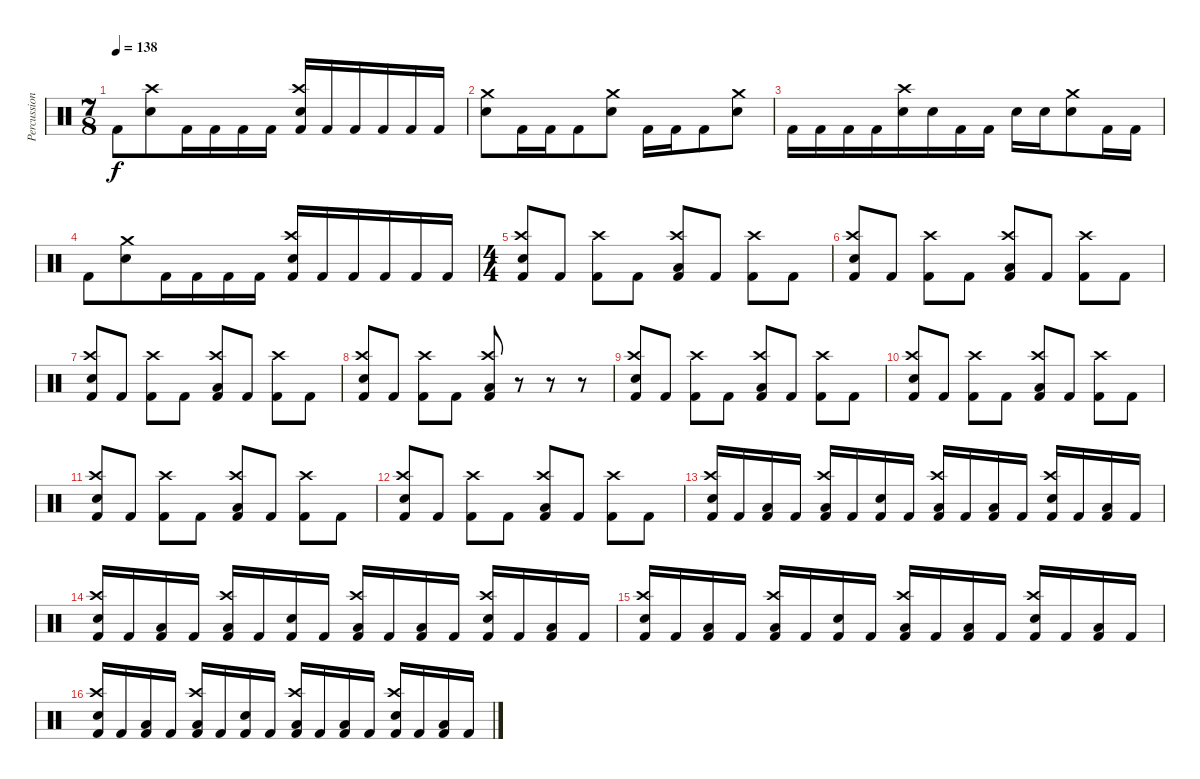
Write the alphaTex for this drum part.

\track ("Percussion" "Percussion") {instrument percussion}
\staff {score}
\articulation defaults
\ts (7 8)
\tempo 138
\clef neutral
\ks c "Kick (hit) 2".8{dy f}
("Crash high (hit)" "Electric Snare (hit)").8 "Kick (hit) 2".16 "Kick (hit) 2".16 "Kick (hit) 2".16 "Kick (hit) 2".16 ("Crash high (hit)" "Electric Snare (hit)" "Kick (hit) 2").16 "Kick (hit) 2".16 "Kick (hit) 2".16 "Kick (hit) 2".16 "Kick (hit) 2".16 "Kick (hit) 2".16 |
("Crash medium (hit)" "Electric Snare (hit)").8 "Kick (hit) 2".16 "Kick (hit) 2".16 "Kick (hit) 2".8 ("Crash medium (hit)" "Electric Snare (hit)").8 "Kick (hit) 2".16 "Kick (hit) 2".16 "Kick (hit) 2".8 ("Crash medium (hit)" "Electric Snare (hit)").8 |
"Kick (hit) 2".16 "Kick (hit) 2".16 "Kick (hit) 2".16 "Kick (hit) 2".16 ("Crash high (hit)" "Electric Snare (hit)").16 "Electric Snare (hit)".16 "Kick (hit) 2".16 "Kick (hit) 2".16 "Electric Snare (hit)".16 "Electric Snare (hit)".16 ("Crash medium (hit)" "Electric Snare (hit)").8 "Kick (hit) 2".16 "Kick (hit) 2".16 |
"Kick (hit) 2".8 ("Crash medium (hit)" "Electric Snare (hit)").8 "Kick (hit) 2".16 "Kick (hit) 2".16 "Kick (hit) 2".16 "Kick (hit) 2".16 ("Crash high (hit)" "Electric Snare (hit)" "Kick (hit) 2").16 "Kick (hit) 2".16 "Kick (hit) 2".16 "Kick (hit) 2".16 "Kick (hit) 2".16 "Kick (hit) 2".16 |
\ts (4 4)
("Crash high (hit)" "Electric Snare (hit)" "Kick (hit) 2").8 "Kick (hit) 2".8 ("Crash high (hit)" "Kick (hit) 2").8 "Kick (hit) 2".8 ("Crash high (hit)" "Low Tom (hit)" "Kick (hit) 2").8 "Kick (hit) 2".8 ("Crash high (hit)" "Kick (hit) 2").8 "Kick (hit) 2".8 |
("Crash high (hit)" "Electric Snare (hit)" "Kick (hit) 2").8 "Kick (hit) 2".8 ("Crash high (hit)" "Kick (hit) 2").8 "Kick (hit) 2".8 ("Crash high (hit)" "Low Tom (hit)" "Kick (hit) 2").8 "Kick (hit) 2".8 ("Crash high (hit)" "Kick (hit) 2").8 "Kick (hit) 2".8 |
("Crash high (hit)" "Electric Snare (hit)" "Kick (hit) 2").8 "Kick (hit) 2".8 ("Crash high (hit)" "Kick (hit) 2").8 "Kick (hit) 2".8 ("Crash high (hit)" "Low Tom (hit)" "Kick (hit) 2").8 "Kick (hit) 2".8 ("Crash high (hit)" "Kick (hit) 2").8 "Kick (hit) 2".8 |
("Crash high (hit)" "Electric Snare (hit)" "Kick (hit) 2").8 "Kick (hit) 2".8 ("Crash high (hit)" "Kick (hit) 2").8 "Kick (hit) 2".8 ("Crash high (hit)" "Low Tom (hit)" "Kick (hit) 2").8 r.8 r.8 r.8 |
("Crash high (hit)" "Electric Snare (hit)" "Kick (hit) 2").8 "Kick (hit) 2".8 ("Crash high (hit)" "Kick (hit) 2").8 "Kick (hit) 2".8 ("Crash high (hit)" "Low Tom (hit)" "Kick (hit) 2").8 "Kick (hit) 2".8 ("Crash high (hit)" "Kick (hit) 2").8 "Kick (hit) 2".8 |
("Crash high (hit)" "Electric Snare (hit)" "Kick (hit) 2").8 "Kick (hit) 2".8 ("Crash high (hit)" "Kick (hit) 2").8 "Kick (hit) 2".8 ("Crash high (hit)" "Low Tom (hit)" "Kick (hit) 2").8 "Kick (hit) 2".8 ("Crash high (hit)" "Kick (hit) 2").8 "Kick (hit) 2".8 |
("Crash high (hit)" "Electric Snare (hit)" "Kick (hit) 2").8 "Kick (hit) 2".8 ("Crash high (hit)" "Kick (hit) 2").8 "Kick (hit) 2".8 ("Crash high (hit)" "Low Tom (hit)" "Kick (hit) 2").8 "Kick (hit) 2".8 ("Crash high (hit)" "Kick (hit) 2").8 "Kick (hit) 2".8 |
("Crash high (hit)" "Electric Snare (hit)" "Kick (hit) 2").8 "Kick (hit) 2".8 ("Crash high (hit)" "Kick (hit) 2").8 "Kick (hit) 2".8 ("Crash high (hit)" "Low Tom (hit)" "Kick (hit) 2").8 "Kick (hit) 2".8 ("Crash high (hit)" "Kick (hit) 2").8 "Kick (hit) 2".8 |
("Crash high (hit)" "Electric Snare (hit)" "Kick (hit) 2").16 "Kick (hit) 2".16 ("Low Tom (hit)" "Kick (hit) 2").16 "Kick (hit) 2".16 ("Crash high (hit)" "Low Tom (hit)" "Kick (hit) 2").16 "Kick (hit) 2".16 ("Electric Snare (hit)" "Kick (hit) 2").16 "Kick (hit) 2".16 ("Crash high (hit)" "Low Tom (hit)" "Kick (hit) 2").16 "Kick (hit) 2".16 ("Low Tom (hit)" "Kick (hit) 2").16 "Kick (hit) 2".16 ("Crash high (hit)" "Electric Snare (hit)" "Kick (hit) 2").16 "Kick (hit) 2".16 ("Low Tom (hit)" "Kick (hit) 2").16 "Kick (hit) 2".16 |
("Crash high (hit)" "Electric Snare (hit)" "Kick (hit) 2").16 "Kick (hit) 2".16 ("Low Tom (hit)" "Kick (hit) 2").16 "Kick (hit) 2".16 ("Crash high (hit)" "Low Tom (hit)" "Kick (hit) 2").16 "Kick (hit) 2".16 ("Electric Snare (hit)" "Kick (hit) 2").16 "Kick (hit) 2".16 ("Crash high (hit)" "Low Tom (hit)" "Kick (hit) 2").16 "Kick (hit) 2".16 ("Low Tom (hit)" "Kick (hit) 2").16 "Kick (hit) 2".16 ("Crash high (hit)" "Electric Snare (hit)" "Kick (hit) 2").16 "Kick (hit) 2".16 ("Low Tom (hit)" "Kick (hit) 2").16 "Kick (hit) 2".16 |
("Crash high (hit)" "Electric Snare (hit)" "Kick (hit) 2").16 "Kick (hit) 2".16 ("Low Tom (hit)" "Kick (hit) 2").16 "Kick (hit) 2".16 ("Crash high (hit)" "Low Tom (hit)" "Kick (hit) 2").16 "Kick (hit) 2".16 ("Electric Snare (hit)" "Kick (hit) 2").16 "Kick (hit) 2".16 ("Crash high (hit)" "Low Tom (hit)" "Kick (hit) 2").16 "Kick (hit) 2".16 ("Low Tom (hit)" "Kick (hit) 2").16 "Kick (hit) 2".16 ("Crash high (hit)" "Electric Snare (hit)" "Kick (hit) 2").16 "Kick (hit) 2".16 ("Low Tom (hit)" "Kick (hit) 2").16 "Kick (hit) 2".16 |
("Crash high (hit)" "Electric Snare (hit)" "Kick (hit) 2").16 "Kick (hit) 2".16 ("Low Tom (hit)" "Kick (hit) 2").16 "Kick (hit) 2".16 ("Crash high (hit)" "Low Tom (hit)" "Kick (hit) 2").16 "Kick (hit) 2".16 ("Electric Snare (hit)" "Kick (hit) 2").16 "Kick (hit) 2".16 ("Crash high (hit)" "Low Tom (hit)" "Kick (hit) 2").16 "Kick (hit) 2".16 ("Low Tom (hit)" "Kick (hit) 2").16 "Kick (hit) 2".16 ("Crash high (hit)" "Electric Snare (hit)" "Kick (hit) 2").16 "Kick (hit) 2".16 ("Low Tom (hit)" "Kick (hit) 2").16 "Kick (hit) 2".16
